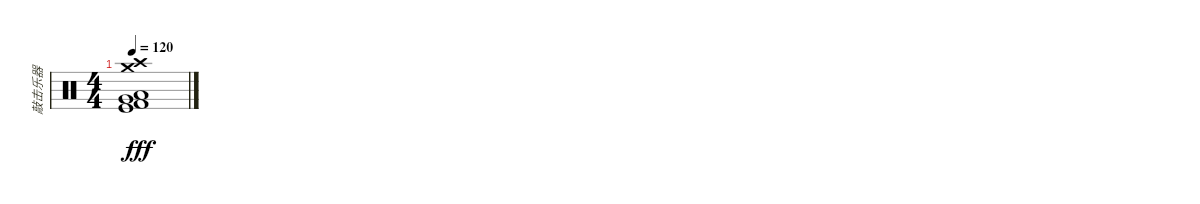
\track ("敲击乐器" "敲击乐器") {instrument percussion}
\staff {score}
\articulation defaults
\ts (4 4)
\tempo 120
\clef neutral
\ks c
("Kick (hit)" "Low Floor Tom (hit)" "Kick (hit) 2" "Very Low Tom (hit)" "Crash medium (hit)" "Crash high (hit)").1{dy fff}
